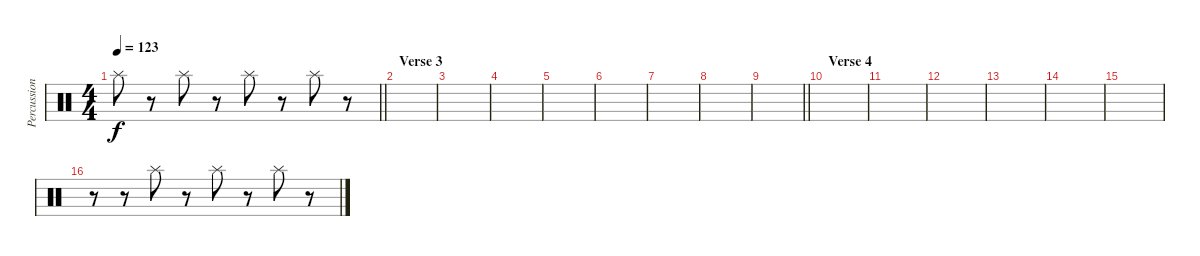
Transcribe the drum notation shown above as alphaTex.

\track ("Percussion 2" "Percussion") {instrument percussion}
\staff {score}
\articulation defaults
\ts (4 4)
\tempo 123
\clef neutral
\barLineRight lightlight
\ks c "Splash (hit)".8{dy f}
r.8 "Splash (hit)".8 r.8 "Splash (hit)".8 r.8 "Splash (hit)".8 r.8 |
\section ("" "Verse 3")
|
|
|
|
|
|
|
\barLineRight lightlight
|
\section ("" "Verse 4")
|
|
|
|
|
|
r.8 r.8 "Splash (hit)".8 r.8 "Splash (hit)".8 r.8 "Splash (hit)".8 r.8
